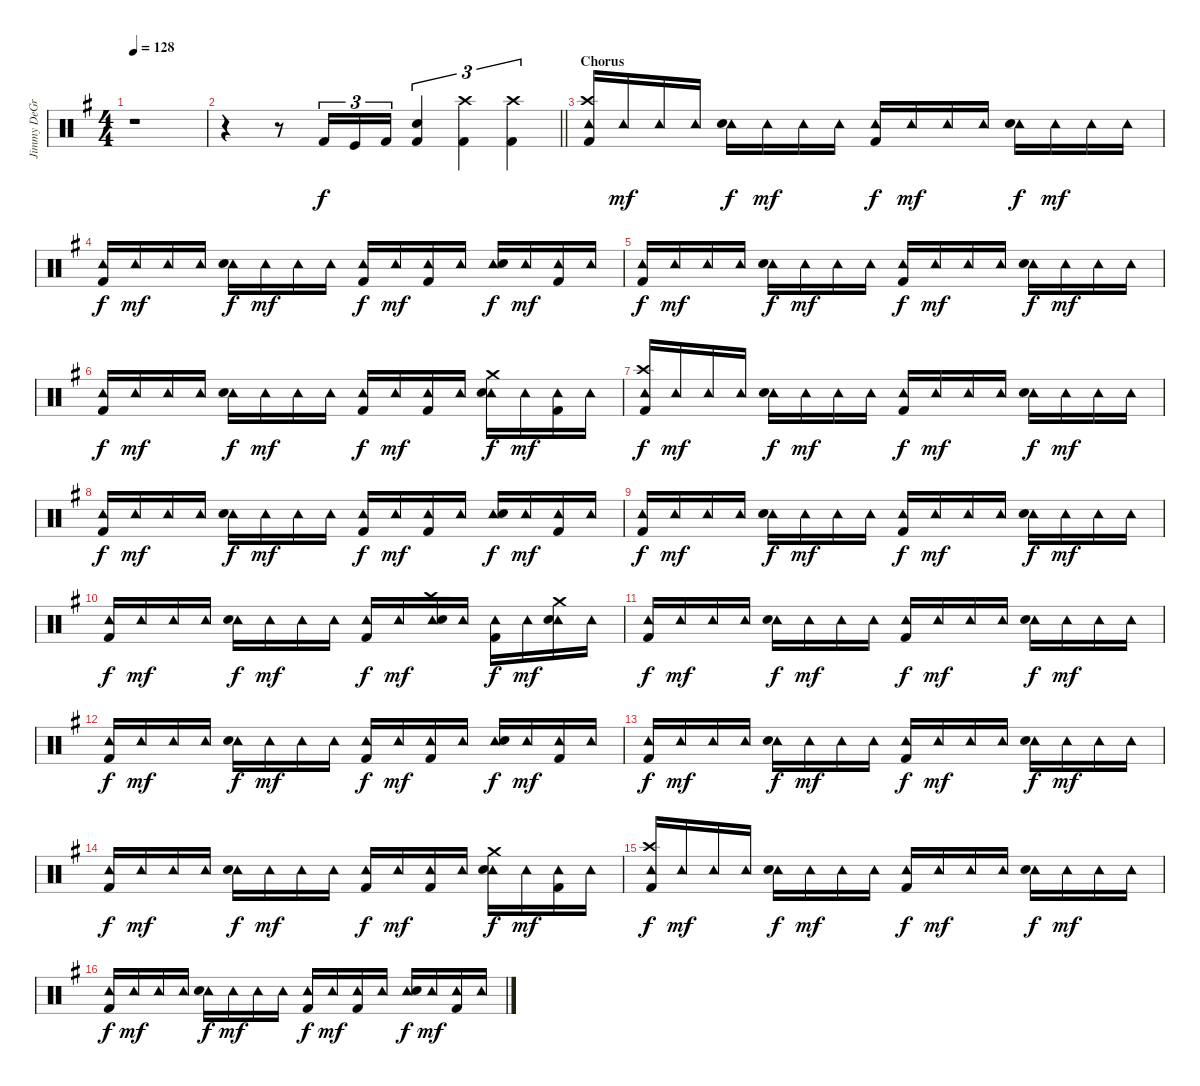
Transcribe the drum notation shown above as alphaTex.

\track ("Jimmy DeGrasso" "Jimmy DeGr") {instrument percussion}
\staff {score}
\articulation defaults
\ts (4 4)
\tempo 128
\clef neutral
\ks g
r.1{dy f} |
\barLineRight lightlight
r.4 r.8 "Kick (hit) 2".16{tu (3 2)} "Kick (hit)".16{tu (3 2)} "Kick (hit) 2".16{tu (3 2)} ("Snare (hit) 2" "Kick (hit) 2").4{tu (3 2)} ("Crash high (hit)" "Kick (hit) 2").4{tu (3 2)} ("Crash high (hit)" "Kick (hit) 2").4{tu (3 2)} |
\section ("" "Chorus")
("Crash high (hit)" "Tambourine (hit)" "Kick (hit) 2").16 "Tambourine (hit)".16{dy mf} "Tambourine (hit)".16 "Tambourine (hit)".16 ("Tambourine (hit)" "Snare (hit) 2").16{dy f} "Tambourine (hit)".16{dy mf} "Tambourine (hit)".16 "Tambourine (hit)".16 ("Tambourine (hit)" "Kick (hit) 2").16{dy f} "Tambourine (hit)".16{dy mf} "Tambourine (hit)".16 "Tambourine (hit)".16 ("Tambourine (hit)" "Snare (hit) 2").16{dy f} "Tambourine (hit)".16{dy mf} "Tambourine (hit)".16 "Tambourine (hit)".16 |
("Tambourine (hit)" "Kick (hit) 2").16{dy f} "Tambourine (hit)".16{dy mf} "Tambourine (hit)".16 "Tambourine (hit)".16 ("Tambourine (hit)" "Snare (hit) 2").16{dy f} "Tambourine (hit)".16{dy mf} "Tambourine (hit)".16 "Tambourine (hit)".16 ("Tambourine (hit)" "Kick (hit) 2").16{dy f} "Tambourine (hit)".16{dy mf} ("Tambourine (hit)" "Kick (hit) 2").16 "Tambourine (hit)".16 ("Tambourine (hit)" "Snare (hit) 2").16{dy f} "Tambourine (hit)".16{dy mf} ("Tambourine (hit)" "Kick (hit) 2").16 "Tambourine (hit)".16 |
("Tambourine (hit)" "Kick (hit) 2").16{dy f} "Tambourine (hit)".16{dy mf} "Tambourine (hit)".16 "Tambourine (hit)".16 ("Tambourine (hit)" "Snare (hit) 2").16{dy f} "Tambourine (hit)".16{dy mf} "Tambourine (hit)".16 "Tambourine (hit)".16 ("Tambourine (hit)" "Kick (hit) 2").16{dy f} "Tambourine (hit)".16{dy mf} "Tambourine (hit)".16 "Tambourine (hit)".16 ("Tambourine (hit)" "Snare (hit) 2").16{dy f} "Tambourine (hit)".16{dy mf} "Tambourine (hit)".16 "Tambourine (hit)".16 |
("Tambourine (hit)" "Kick (hit) 2").16{dy f} "Tambourine (hit)".16{dy mf} "Tambourine (hit)".16 "Tambourine (hit)".16 ("Tambourine (hit)" "Snare (hit) 2").16{dy f} "Tambourine (hit)".16{dy mf} "Tambourine (hit)".16 "Tambourine (hit)".16 ("Tambourine (hit)" "Kick (hit) 2").16{dy f} "Tambourine (hit)".16{dy mf} ("Tambourine (hit)" "Kick (hit) 2").16 "Tambourine (hit)".16 ("Crash medium (hit)" "Tambourine (hit)" "Snare (hit) 2").16{dy f} "Tambourine (hit)".16{dy mf} ("Tambourine (hit)" "Kick (hit) 2").16 "Tambourine (hit)".16 |
("Crash high (hit)" "Tambourine (hit)" "Kick (hit) 2").16{dy f} "Tambourine (hit)".16{dy mf} "Tambourine (hit)".16 "Tambourine (hit)".16 ("Tambourine (hit)" "Snare (hit) 2").16{dy f} "Tambourine (hit)".16{dy mf} "Tambourine (hit)".16 "Tambourine (hit)".16 ("Tambourine (hit)" "Kick (hit) 2").16{dy f} "Tambourine (hit)".16{dy mf} "Tambourine (hit)".16 "Tambourine (hit)".16 ("Tambourine (hit)" "Snare (hit) 2").16{dy f} "Tambourine (hit)".16{dy mf} "Tambourine (hit)".16 "Tambourine (hit)".16 |
("Tambourine (hit)" "Kick (hit) 2").16{dy f} "Tambourine (hit)".16{dy mf} "Tambourine (hit)".16 "Tambourine (hit)".16 ("Tambourine (hit)" "Snare (hit) 2").16{dy f} "Tambourine (hit)".16{dy mf} "Tambourine (hit)".16 "Tambourine (hit)".16 ("Tambourine (hit)" "Kick (hit) 2").16{dy f} "Tambourine (hit)".16{dy mf} ("Tambourine (hit)" "Kick (hit) 2").16 "Tambourine (hit)".16 ("Tambourine (hit)" "Snare (hit) 2").16{dy f} "Tambourine (hit)".16{dy mf} ("Tambourine (hit)" "Kick (hit) 2").16 "Tambourine (hit)".16 |
("Tambourine (hit)" "Kick (hit) 2").16{dy f} "Tambourine (hit)".16{dy mf} "Tambourine (hit)".16 "Tambourine (hit)".16 ("Tambourine (hit)" "Snare (hit) 2").16{dy f} "Tambourine (hit)".16{dy mf} "Tambourine (hit)".16 "Tambourine (hit)".16 ("Tambourine (hit)" "Kick (hit) 2").16{dy f} "Tambourine (hit)".16{dy mf} "Tambourine (hit)".16 "Tambourine (hit)".16 ("Tambourine (hit)" "Snare (hit) 2").16{dy f} "Tambourine (hit)".16{dy mf} "Tambourine (hit)".16 "Tambourine (hit)".16 |
("Tambourine (hit)" "Kick (hit) 2").16{dy f} "Tambourine (hit)".16{dy mf} "Tambourine (hit)".16 "Tambourine (hit)".16 ("Tambourine (hit)" "Snare (hit) 2").16{dy f} "Tambourine (hit)".16{dy mf} "Tambourine (hit)".16 "Tambourine (hit)".16 ("Tambourine (hit)" "Kick (hit) 2").16{dy f} "Tambourine (hit)".16{dy mf} ("Crash high (hit)" "Tambourine (hit)" "Snare (hit) 2").16 "Tambourine (hit)".16 ("Tambourine (hit)" "Kick (hit) 2").16{dy f} "Tambourine (hit)".16{dy mf} ("Crash medium (hit)" "Tambourine (hit)" "Snare (hit) 2").16 "Tambourine (hit)".16 |
("Tambourine (hit)" "Kick (hit) 2").16{dy f} "Tambourine (hit)".16{dy mf} "Tambourine (hit)".16 "Tambourine (hit)".16 ("Tambourine (hit)" "Snare (hit) 2").16{dy f} "Tambourine (hit)".16{dy mf} "Tambourine (hit)".16 "Tambourine (hit)".16 ("Tambourine (hit)" "Kick (hit) 2").16{dy f} "Tambourine (hit)".16{dy mf} "Tambourine (hit)".16 "Tambourine (hit)".16 ("Tambourine (hit)" "Snare (hit) 2").16{dy f} "Tambourine (hit)".16{dy mf} "Tambourine (hit)".16 "Tambourine (hit)".16 |
("Tambourine (hit)" "Kick (hit) 2").16{dy f} "Tambourine (hit)".16{dy mf} "Tambourine (hit)".16 "Tambourine (hit)".16 ("Tambourine (hit)" "Snare (hit) 2").16{dy f} "Tambourine (hit)".16{dy mf} "Tambourine (hit)".16 "Tambourine (hit)".16 ("Tambourine (hit)" "Kick (hit) 2").16{dy f} "Tambourine (hit)".16{dy mf} ("Tambourine (hit)" "Kick (hit) 2").16 "Tambourine (hit)".16 ("Tambourine (hit)" "Snare (hit) 2").16{dy f} "Tambourine (hit)".16{dy mf} ("Tambourine (hit)" "Kick (hit) 2").16 "Tambourine (hit)".16 |
("Tambourine (hit)" "Kick (hit) 2").16{dy f} "Tambourine (hit)".16{dy mf} "Tambourine (hit)".16 "Tambourine (hit)".16 ("Tambourine (hit)" "Snare (hit) 2").16{dy f} "Tambourine (hit)".16{dy mf} "Tambourine (hit)".16 "Tambourine (hit)".16 ("Tambourine (hit)" "Kick (hit) 2").16{dy f} "Tambourine (hit)".16{dy mf} "Tambourine (hit)".16 "Tambourine (hit)".16 ("Tambourine (hit)" "Snare (hit) 2").16{dy f} "Tambourine (hit)".16{dy mf} "Tambourine (hit)".16 "Tambourine (hit)".16 |
("Tambourine (hit)" "Kick (hit) 2").16{dy f} "Tambourine (hit)".16{dy mf} "Tambourine (hit)".16 "Tambourine (hit)".16 ("Tambourine (hit)" "Snare (hit) 2").16{dy f} "Tambourine (hit)".16{dy mf} "Tambourine (hit)".16 "Tambourine (hit)".16 ("Tambourine (hit)" "Kick (hit) 2").16{dy f} "Tambourine (hit)".16{dy mf} ("Tambourine (hit)" "Kick (hit) 2").16 "Tambourine (hit)".16 ("Crash medium (hit)" "Tambourine (hit)" "Snare (hit) 2").16{dy f} "Tambourine (hit)".16{dy mf} ("Tambourine (hit)" "Kick (hit) 2").16 "Tambourine (hit)".16 |
("Crash high (hit)" "Tambourine (hit)" "Kick (hit) 2").16{dy f} "Tambourine (hit)".16{dy mf} "Tambourine (hit)".16 "Tambourine (hit)".16 ("Tambourine (hit)" "Snare (hit) 2").16{dy f} "Tambourine (hit)".16{dy mf} "Tambourine (hit)".16 "Tambourine (hit)".16 ("Tambourine (hit)" "Kick (hit) 2").16{dy f} "Tambourine (hit)".16{dy mf} "Tambourine (hit)".16 "Tambourine (hit)".16 ("Tambourine (hit)" "Snare (hit) 2").16{dy f} "Tambourine (hit)".16{dy mf} "Tambourine (hit)".16 "Tambourine (hit)".16 |
("Tambourine (hit)" "Kick (hit) 2").16{dy f} "Tambourine (hit)".16{dy mf} "Tambourine (hit)".16 "Tambourine (hit)".16 ("Tambourine (hit)" "Snare (hit) 2").16{dy f} "Tambourine (hit)".16{dy mf} "Tambourine (hit)".16 "Tambourine (hit)".16 ("Tambourine (hit)" "Kick (hit) 2").16{dy f} "Tambourine (hit)".16{dy mf} ("Tambourine (hit)" "Kick (hit) 2").16 "Tambourine (hit)".16 ("Tambourine (hit)" "Snare (hit) 2").16{dy f} "Tambourine (hit)".16{dy mf} ("Tambourine (hit)" "Kick (hit) 2").16 "Tambourine (hit)".16
